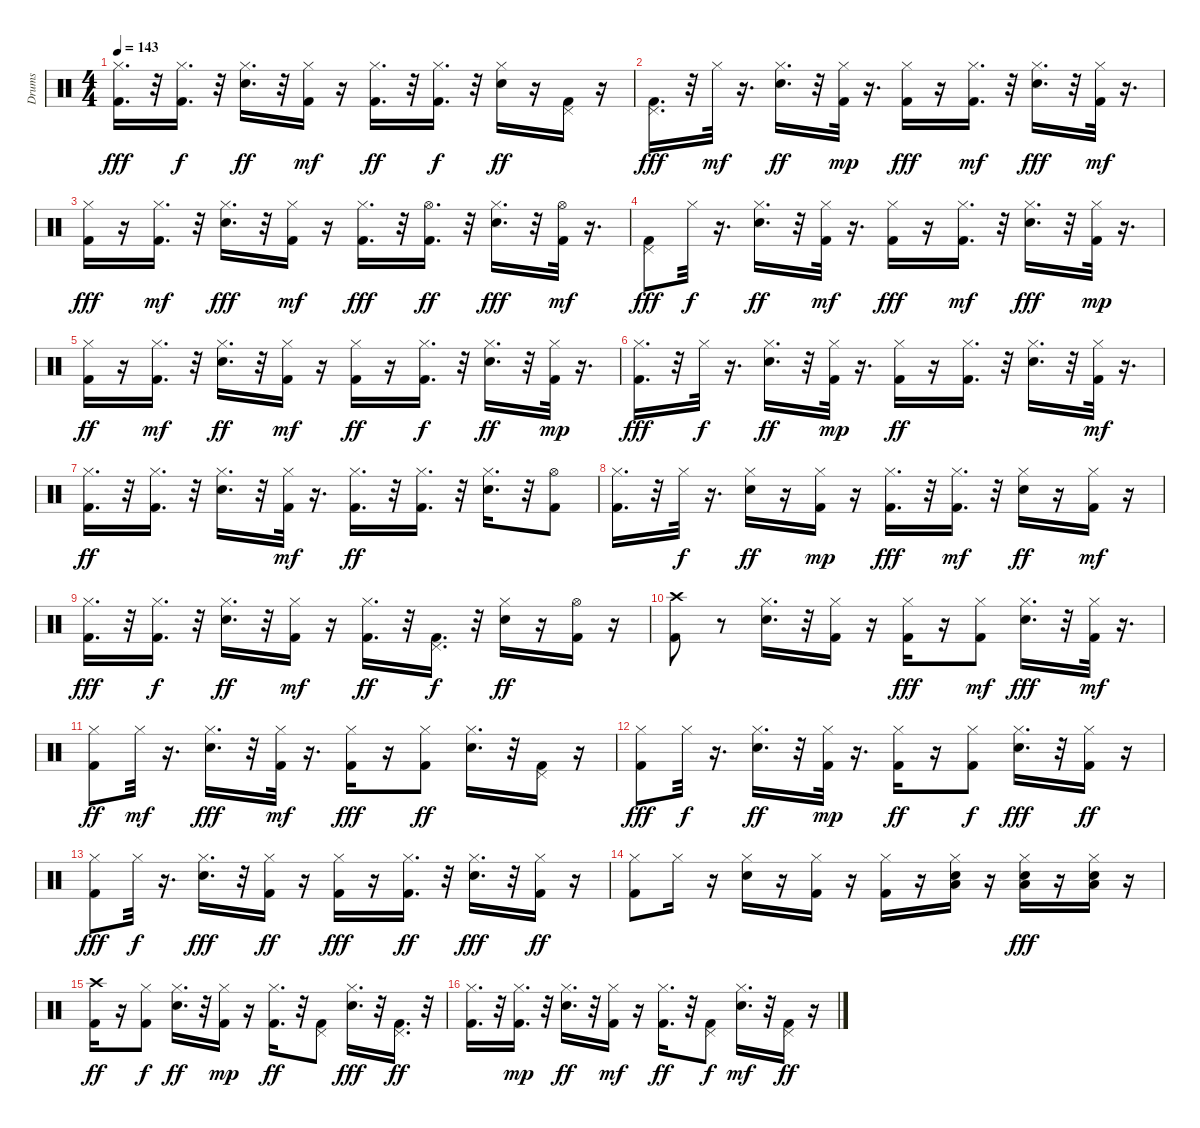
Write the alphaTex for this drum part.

\track ("Drums               " "Drums     ") {instrument percussion}
\staff {score}
\articulation defaults
\ts (4 4)
\tempo 143
\clef neutral
\ks c
("Kick (hit) 2" "Hi-Hat (closed)").16{d dy fff} r.32 ("Kick (hit) 2" "Hi-Hat (closed)").16{d dy f} r.32 ("Snare (hit) 2" "Hi-Hat (closed)").16{d dy ff} r.32 ("Kick (hit) 2" "Hi-Hat (closed)").16{dy mf} r.16 ("Kick (hit) 2" "Hi-Hat (closed)").16{d dy ff} r.32 ("Kick (hit) 2" "Hi-Hat (closed)").16{d dy f} r.32 ("Snare (hit) 2" "Hi-Hat (closed)").16{dy ff} r.16 ("Kick (hit) 2" "Pedal Hi-Hat (hit)").16 r.16 |
("Kick (hit) 2" "Pedal Hi-Hat (hit)").16{d dy fff} r.32 "Hi-Hat (closed)".32{dy mf} r.16{d} ("Snare (hit) 2" "Hi-Hat (closed)").16{d dy ff} r.32 ("Kick (hit) 2" "Hi-Hat (closed)").32{dy mp} r.16{d} ("Kick (hit) 2" "Hi-Hat (closed)").16{dy fff} r.16 ("Kick (hit) 2" "Hi-Hat (closed)").16{d dy mf} r.32 ("Snare (hit) 2" "Hi-Hat (closed)").16{d dy fff} r.32 ("Kick (hit) 2" "Hi-Hat (closed)").32{dy mf} r.16{d} |
("Kick (hit) 2" "Hi-Hat (closed)").16{dy fff} r.16 ("Kick (hit) 2" "Hi-Hat (closed)").16{d dy mf} r.32 ("Snare (hit) 2" "Hi-Hat (closed)").16{d dy fff} r.32 ("Kick (hit) 2" "Hi-Hat (closed)").16{dy mf} r.16 ("Kick (hit) 2" "Hi-Hat (closed)").16{d dy fff} r.32 ("Kick (hit) 2" "Hi-Hat (open)").16{d dy ff} r.32 ("Snare (hit) 2" "Hi-Hat (closed)").16{d dy fff} r.32 ("Kick (hit) 2" "Hi-Hat (open)").32{dy mf} r.16{d} |
("Kick (hit) 2" "Pedal Hi-Hat (hit)").8{dy fff} "Hi-Hat (closed)".32{dy f} r.16{d} ("Snare (hit) 2" "Hi-Hat (closed)").16{d dy ff} r.32 ("Kick (hit) 2" "Hi-Hat (closed)").32{dy mf} r.16{d} ("Kick (hit) 2" "Hi-Hat (closed)").16{dy fff} r.16 ("Kick (hit) 2" "Hi-Hat (closed)").16{d dy mf} r.32 ("Snare (hit) 2" "Hi-Hat (closed)").16{d dy fff} r.32 ("Kick (hit) 2" "Hi-Hat (closed)").32{dy mp} r.16{d} |
("Kick (hit) 2" "Hi-Hat (closed)").16{dy ff} r.16 ("Kick (hit) 2" "Hi-Hat (closed)").16{d dy mf} r.32 ("Snare (hit) 2" "Hi-Hat (closed)").16{d dy ff} r.32 ("Kick (hit) 2" "Hi-Hat (closed)").16{dy mf} r.16 ("Kick (hit) 2" "Hi-Hat (closed)").16{dy ff} r.16 ("Kick (hit) 2" "Hi-Hat (closed)").16{d dy f} r.32 ("Snare (hit) 2" "Hi-Hat (closed)").16{d dy ff} r.32 ("Kick (hit) 2" "Hi-Hat (closed)").32{dy mp} r.16{d} |
("Kick (hit) 2" "Hi-Hat (closed)").16{d dy fff} r.32 "Hi-Hat (closed)".32{dy f} r.16{d} ("Snare (hit) 2" "Hi-Hat (closed)").16{d dy ff} r.32 ("Kick (hit) 2" "Hi-Hat (closed)").32{dy mp} r.16{d} ("Kick (hit) 2" "Hi-Hat (closed)").16{dy ff} r.16 ("Kick (hit) 2" "Hi-Hat (closed)").16{d} r.32 ("Snare (hit) 2" "Hi-Hat (closed)").16{d} r.32 ("Kick (hit) 2" "Hi-Hat (closed)").32{dy mf} r.16{d} |
("Kick (hit) 2" "Hi-Hat (closed)").16{d dy ff} r.32 ("Kick (hit) 2" "Hi-Hat (closed)").16{d} r.32 ("Snare (hit) 2" "Hi-Hat (closed)").16{d} r.32 ("Kick (hit) 2" "Hi-Hat (closed)").32{dy mf} r.16{d} ("Kick (hit) 2" "Hi-Hat (closed)").16{d dy ff} r.32 ("Kick (hit) 2" "Hi-Hat (closed)").16{d} r.32 ("Snare (hit) 2" "Hi-Hat (closed)").16{d} r.32 ("Kick (hit) 2" "Hi-Hat (open)").8 |
("Kick (hit) 2" "Hi-Hat (closed)").16{d} r.32 "Hi-Hat (closed)".32{dy f} r.16{d} ("Snare (hit) 2" "Hi-Hat (closed)").16{dy ff} r.16 ("Kick (hit) 2" "Hi-Hat (closed)").16{dy mp} r.16 ("Kick (hit) 2" "Hi-Hat (closed)").16{d dy fff} r.32 ("Kick (hit) 2" "Hi-Hat (closed)").16{d dy mf} r.32 ("Snare (hit) 2" "Hi-Hat (closed)").16{dy ff} r.16 ("Kick (hit) 2" "Hi-Hat (closed)").16{dy mf} r.16 |
("Kick (hit) 2" "Hi-Hat (closed)").16{d dy fff} r.32 ("Kick (hit) 2" "Hi-Hat (closed)").16{d dy f} r.32 ("Snare (hit) 2" "Hi-Hat (closed)").16{d dy ff} r.32 ("Kick (hit) 2" "Hi-Hat (closed)").16{dy mf} r.16 ("Kick (hit) 2" "Hi-Hat (closed)").16{d dy ff} r.32 ("Kick (hit) 2" "Pedal Hi-Hat (hit)").16{d dy f} r.32 ("Snare (hit) 2" "Hi-Hat (closed)").16{dy ff} r.16 ("Kick (hit) 2" "Hi-Hat (open)").16 r.16 |
("Kick (hit) 2" "Crash high (hit)").8 r.8 ("Snare (hit) 2" "Hi-Hat (closed)").16{d} r.32 ("Kick (hit) 2" "Hi-Hat (closed)").16 r.16 ("Kick (hit) 2" "Hi-Hat (closed)").16{dy fff} r.16 ("Kick (hit) 2" "Hi-Hat (closed)").8{dy mf} ("Snare (hit) 2" "Hi-Hat (closed)").16{d dy fff} r.32 ("Kick (hit) 2" "Hi-Hat (closed)").32{dy mf} r.16{d} |
("Kick (hit) 2" "Hi-Hat (closed)").8{dy ff} "Hi-Hat (closed)".32{dy mf} r.16{d} ("Snare (hit) 2" "Hi-Hat (closed)").16{d dy fff} r.32 ("Kick (hit) 2" "Hi-Hat (closed)").32{dy mf} r.16{d} ("Kick (hit) 2" "Hi-Hat (closed)").16{dy fff} r.16 ("Kick (hit) 2" "Hi-Hat (closed)").8{dy ff} ("Snare (hit) 2" "Hi-Hat (closed)").16{d} r.32 ("Kick (hit) 2" "Pedal Hi-Hat (hit)").16 r.16 |
("Kick (hit) 2" "Hi-Hat (closed)").8{dy fff} "Hi-Hat (closed)".32{dy f} r.16{d} ("Snare (hit) 2" "Hi-Hat (closed)").16{d dy ff} r.32 ("Kick (hit) 2" "Hi-Hat (closed)").32{dy mp} r.16{d} ("Kick (hit) 2" "Hi-Hat (closed)").16{dy ff} r.16 ("Kick (hit) 2" "Hi-Hat (closed)").8{dy f} ("Snare (hit) 2" "Hi-Hat (closed)").16{d dy fff} r.32 ("Kick (hit) 2" "Hi-Hat (closed)").16{dy ff} r.16 |
("Kick (hit) 2" "Hi-Hat (closed)").8{dy fff} "Hi-Hat (closed)".32{dy f} r.16{d} ("Snare (hit) 2" "Hi-Hat (closed)").16{d dy fff} r.32 ("Kick (hit) 2" "Hi-Hat (closed)").16{dy ff} r.16 ("Kick (hit) 2" "Hi-Hat (closed)").16{dy fff} r.16 ("Kick (hit) 2" "Hi-Hat (closed)").16{d dy ff} r.32 ("Snare (hit) 2" "Hi-Hat (closed)").16{d dy fff} r.32 ("Kick (hit) 2" "Hi-Hat (closed)").16{dy ff} r.16 |
("Kick (hit) 2" "Hi-Hat (closed)").8 "Hi-Hat (closed)".16 r.16 ("Snare (hit) 2" "Hi-Hat (closed)").16 r.16 ("Kick (hit) 2" "Hi-Hat (closed)").16 r.16 ("Kick (hit) 2" "Hi-Hat (closed)").16 r.16 ("Snare (hit) 2" "Hi-Hat (closed)" "Low Tom (hit)").16 r.16 ("Snare (hit) 2" "Hi-Hat (closed)" "Low Tom (hit)").16{dy fff} r.16 ("Snare (hit) 2" "Hi-Hat (closed)" "Low Tom (hit)").16 r.16 |
("Kick (hit) 2" "Crash high (hit)").16{dy ff} r.16 ("Kick (hit) 2" "Hi-Hat (closed)").8{dy f} ("Snare (hit) 2" "Hi-Hat (closed)").16{d dy ff} r.32 ("Kick (hit) 2" "Hi-Hat (closed)").16{dy mp} r.16 ("Kick (hit) 2" "Hi-Hat (closed)").16{d dy ff} r.32 ("Kick (hit) 2" "Pedal Hi-Hat (hit)").8 ("Snare (hit) 2" "Hi-Hat (closed)").16{d dy fff} r.32 ("Kick (hit) 2" "Pedal Hi-Hat (hit)").16{d dy ff} r.32 |
("Kick (hit) 2" "Hi-Hat (closed)").16{d} r.32 ("Kick (hit) 2" "Hi-Hat (closed)").16{d dy mp} r.32 ("Snare (hit) 2" "Hi-Hat (closed)").16{d dy ff} r.32 ("Kick (hit) 2" "Hi-Hat (closed)").16{dy mf} r.16 ("Kick (hit) 2" "Hi-Hat (closed)").16{d dy ff} r.32 ("Kick (hit) 2" "Pedal Hi-Hat (hit)").8{dy f} ("Snare (hit) 2" "Hi-Hat (closed)").16{d dy mf} r.32 ("Kick (hit) 2" "Pedal Hi-Hat (hit)").16{dy ff} r.16
